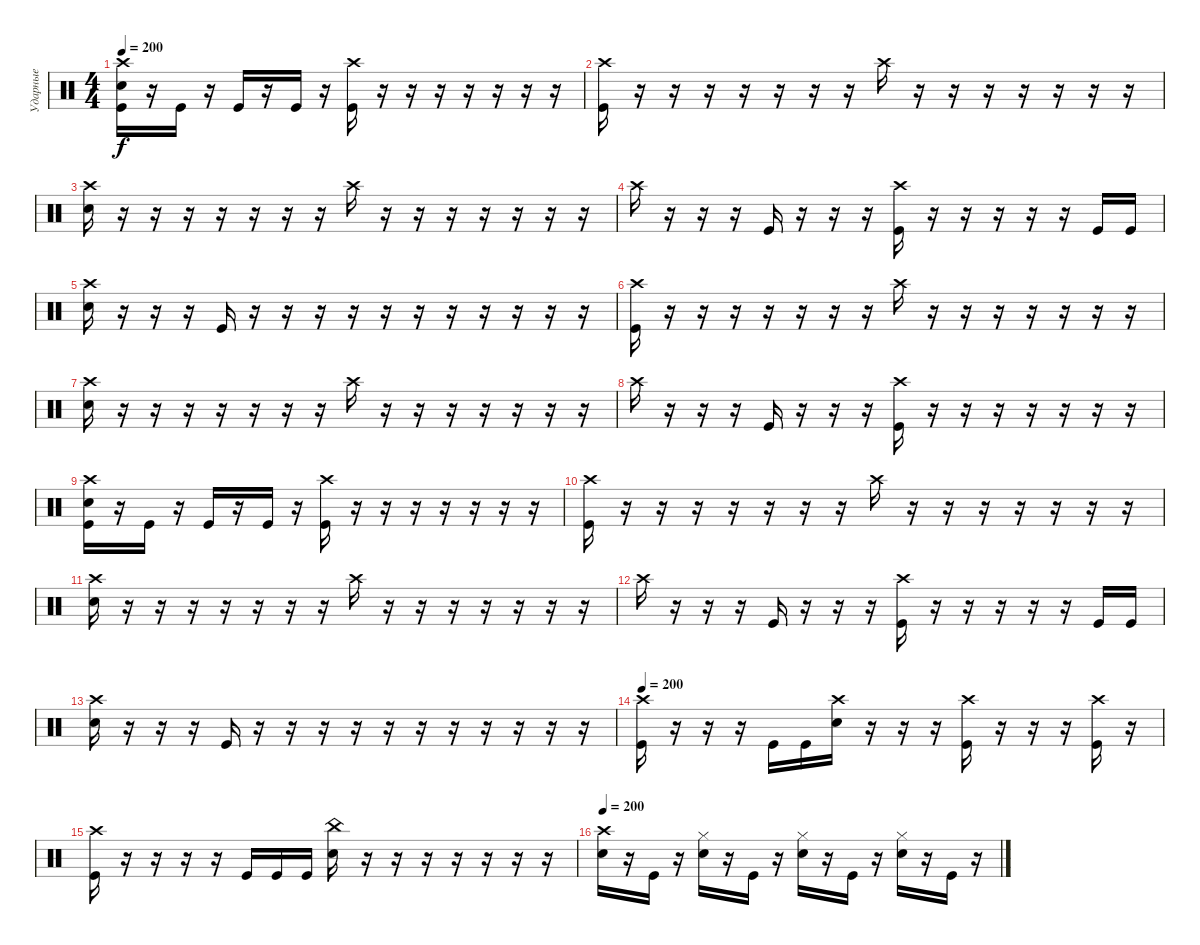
\track ("Ударные" "Ударные") {instrument percussion}
\staff {score}
\articulation defaults
\ts (4 4)
\tempo 200
\clef neutral
\ks c
("Crash high (hit)" "Kick (hit)" "Electric Snare (hit)").16{dy f} r.16 "Kick (hit)".16 r.16 "Kick (hit)".16 r.16 "Kick (hit)".16 r.16 ("Crash high (hit)" "Kick (hit)").16 r.16 r.16 r.16 r.16 r.16 r.16 r.16 |
("Crash high (hit)" "Kick (hit)").16 r.16 r.16 r.16 r.16 r.16 r.16 r.16 "Crash high (hit)".16 r.16 r.16 r.16 r.16 r.16 r.16 r.16 |
("Crash high (hit)" "Electric Snare (hit)").16 r.16 r.16 r.16 r.16 r.16 r.16 r.16 "Crash high (hit)".16 r.16 r.16 r.16 r.16 r.16 r.16 r.16 |
"Crash high (hit)".16 r.16 r.16 r.16 "Kick (hit)".16 r.16 r.16 r.16 ("Crash high (hit)" "Kick (hit)").16 r.16 r.16 r.16 r.16 r.16 "Kick (hit)".16 "Kick (hit)".16 |
("Crash high (hit)" "Electric Snare (hit)").16 r.16 r.16 r.16 "Kick (hit)".16 r.16 r.16 r.16 r.16 r.16 r.16 r.16 r.16 r.16 r.16 r.16 |
("Crash high (hit)" "Kick (hit)").16 r.16 r.16 r.16 r.16 r.16 r.16 r.16 "Crash high (hit)".16 r.16 r.16 r.16 r.16 r.16 r.16 r.16 |
("Crash high (hit)" "Electric Snare (hit)").16 r.16 r.16 r.16 r.16 r.16 r.16 r.16 "Crash high (hit)".16 r.16 r.16 r.16 r.16 r.16 r.16 r.16 |
"Crash high (hit)".16 r.16 r.16 r.16 "Kick (hit)".16 r.16 r.16 r.16 ("Crash high (hit)" "Kick (hit)").16 r.16 r.16 r.16 r.16 r.16 r.16 r.16 |
("Crash high (hit)" "Kick (hit)" "Electric Snare (hit)").16 r.16 "Kick (hit)".16 r.16 "Kick (hit)".16 r.16 "Kick (hit)".16 r.16 ("Crash high (hit)" "Kick (hit)").16 r.16 r.16 r.16 r.16 r.16 r.16 r.16 |
("Crash high (hit)" "Kick (hit)").16 r.16 r.16 r.16 r.16 r.16 r.16 r.16 "Crash high (hit)".16 r.16 r.16 r.16 r.16 r.16 r.16 r.16 |
("Crash high (hit)" "Electric Snare (hit)").16 r.16 r.16 r.16 r.16 r.16 r.16 r.16 "Crash high (hit)".16 r.16 r.16 r.16 r.16 r.16 r.16 r.16 |
"Crash high (hit)".16 r.16 r.16 r.16 "Kick (hit)".16 r.16 r.16 r.16 ("Crash high (hit)" "Kick (hit)").16 r.16 r.16 r.16 r.16 r.16 "Kick (hit)".16 "Kick (hit)".16 |
("Crash high (hit)" "Electric Snare (hit)").16 r.16 r.16 r.16 "Kick (hit)".16 r.16 r.16 r.16 r.16 r.16 r.16 r.16 r.16 r.16 r.16 r.16 |
\tempo 200
("Crash high (hit)" "Kick (hit)").16 r.16 r.16 r.16 "Kick (hit)".16 "Kick (hit)".16 ("Crash high (hit)" "Electric Snare (hit)").16 r.16 r.16 r.16 ("Crash high (hit)" "Kick (hit)").16 r.16 r.16 r.16 ("Crash high (hit)" "Kick (hit)").16 r.16 |
("Kick (hit)" "Crash high (hit)").16 r.16 r.16 r.16 r.16 "Kick (hit)".16 "Kick (hit)".16 "Kick (hit)".16 ("Electric Snare (hit)" "China (hit)").16 r.16 r.16 r.16 r.16 r.16 r.16 r.16 |
\tempo 200
("Crash high (hit)" "Electric Snare (hit)").16 r.16 "Kick (hit)".16 r.16 ("Hi-Hat (closed)" "Electric Snare (hit)").16 r.16 "Kick (hit)".16 r.16 ("Hi-Hat (closed)" "Electric Snare (hit)").16 r.16 "Kick (hit)".16 r.16 ("Hi-Hat (closed)" "Electric Snare (hit)").16 r.16 "Kick (hit)".16 r.16
